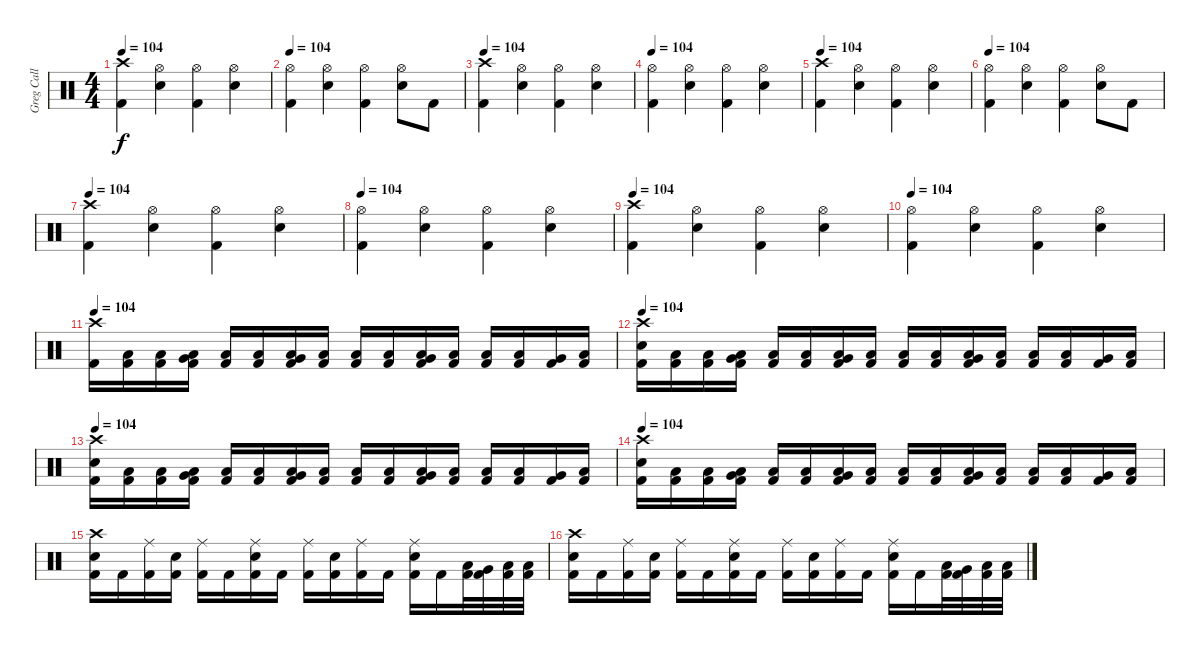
\track ("Greg Call (Drums)" "Greg Call ") {instrument percussion}
\staff {score}
\articulation defaults
\ts (4 4)
\tempo 104
\clef neutral
\ks c
("Crash high (hit)" "Kick (hit) 2").4{dy f} ("Hi-Hat (open)" "Snare (hit) 2").4 ("Hi-Hat (open)" "Kick (hit) 2").4 ("Hi-Hat (open)" "Snare (hit) 2").4 |
\tempo 104
("Hi-Hat (open)" "Kick (hit) 2").4 ("Hi-Hat (open)" "Snare (hit) 2").4 ("Hi-Hat (open)" "Kick (hit) 2").4 ("Hi-Hat (open)" "Snare (hit) 2").8 "Kick (hit) 2".8 |
\tempo 104
("Crash high (hit)" "Kick (hit) 2").4 ("Hi-Hat (open)" "Snare (hit) 2").4 ("Hi-Hat (open)" "Kick (hit) 2").4 ("Hi-Hat (open)" "Snare (hit) 2").4 |
\tempo 104
("Hi-Hat (open)" "Kick (hit) 2").4 ("Hi-Hat (open)" "Snare (hit) 2").4 ("Hi-Hat (open)" "Kick (hit) 2").4 ("Hi-Hat (open)" "Snare (hit) 2").4 |
\tempo 104
("Crash high (hit)" "Kick (hit) 2").4 ("Hi-Hat (open)" "Snare (hit) 2").4 ("Hi-Hat (open)" "Kick (hit) 2").4 ("Hi-Hat (open)" "Snare (hit) 2").4 |
\tempo 104
("Hi-Hat (open)" "Kick (hit) 2").4 ("Hi-Hat (open)" "Snare (hit) 2").4 ("Hi-Hat (open)" "Kick (hit) 2").4 ("Hi-Hat (open)" "Snare (hit) 2").8 "Kick (hit) 2".8 |
\tempo 104
("Crash high (hit)" "Kick (hit) 2").4 ("Hi-Hat (open)" "Snare (hit) 2").4 ("Hi-Hat (open)" "Kick (hit) 2").4 ("Hi-Hat (open)" "Snare (hit) 2").4 |
\tempo 104
("Hi-Hat (open)" "Kick (hit) 2").4 ("Hi-Hat (open)" "Snare (hit) 2").4 ("Hi-Hat (open)" "Kick (hit) 2").4 ("Hi-Hat (open)" "Snare (hit) 2").4 |
\tempo 104
("Crash high (hit)" "Kick (hit) 2").4 ("Hi-Hat (open)" "Snare (hit) 2").4 ("Hi-Hat (open)" "Kick (hit) 2").4 ("Hi-Hat (open)" "Snare (hit) 2").4 |
\tempo 104
("Hi-Hat (open)" "Kick (hit) 2").4 ("Hi-Hat (open)" "Snare (hit) 2").4 ("Hi-Hat (open)" "Kick (hit) 2").4 ("Hi-Hat (open)" "Snare (hit) 2").4 |
\tempo 104
("Crash high (hit)" "Kick (hit) 2").16 ("Low Floor Tom (hit)" "Kick (hit) 2").16 ("Low Floor Tom (hit)" "Kick (hit) 2").16 ("Low Tom (hit)" "Very Low Tom (hit)" "Kick (hit) 2").16 ("Low Floor Tom (hit)" "Kick (hit) 2").16 ("Low Floor Tom (hit)" "Kick (hit) 2").16 ("Low Floor Tom (hit)" "Very Low Tom (hit)" "Kick (hit) 2").16 ("Low Floor Tom (hit)" "Kick (hit) 2").16 ("Low Floor Tom (hit)" "Kick (hit) 2").16 ("Low Floor Tom (hit)" "Kick (hit) 2").16 ("Low Floor Tom (hit)" "Very Low Tom (hit)" "Kick (hit) 2").16 ("Low Floor Tom (hit)" "Kick (hit) 2").16 ("Low Floor Tom (hit)" "Kick (hit) 2").16 ("Low Tom (hit)" "Kick (hit) 2").16 ("Very Low Tom (hit)" "Kick (hit) 2").16 ("Low Floor Tom (hit)" "Kick (hit) 2").16 |
\tempo 104
("Snare (hit) 2" "Crash high (hit)" "Kick (hit) 2").16 ("Low Floor Tom (hit)" "Kick (hit) 2").16 ("Low Floor Tom (hit)" "Kick (hit) 2").16 ("Low Tom (hit)" "Very Low Tom (hit)" "Kick (hit) 2").16 ("Low Floor Tom (hit)" "Kick (hit) 2").16 ("Low Floor Tom (hit)" "Kick (hit) 2").16 ("Low Floor Tom (hit)" "Very Low Tom (hit)" "Kick (hit) 2").16 ("Low Floor Tom (hit)" "Kick (hit) 2").16 ("Low Floor Tom (hit)" "Kick (hit) 2").16 ("Low Floor Tom (hit)" "Kick (hit) 2").16 ("Low Floor Tom (hit)" "Very Low Tom (hit)" "Kick (hit) 2").16 ("Low Floor Tom (hit)" "Kick (hit) 2").16 ("Low Floor Tom (hit)" "Kick (hit) 2").16 ("Low Tom (hit)" "Kick (hit) 2").16 ("Very Low Tom (hit)" "Kick (hit) 2").16 ("Low Floor Tom (hit)" "Kick (hit) 2").16 |
\tempo 104
("Snare (hit) 2" "Crash high (hit)" "Kick (hit) 2").16 ("Low Floor Tom (hit)" "Kick (hit) 2").16 ("Low Floor Tom (hit)" "Kick (hit) 2").16 ("Low Tom (hit)" "Very Low Tom (hit)" "Kick (hit) 2").16 ("Low Floor Tom (hit)" "Kick (hit) 2").16 ("Low Floor Tom (hit)" "Kick (hit) 2").16 ("Low Floor Tom (hit)" "Very Low Tom (hit)" "Kick (hit) 2").16 ("Low Floor Tom (hit)" "Kick (hit) 2").16 ("Low Floor Tom (hit)" "Kick (hit) 2").16 ("Low Floor Tom (hit)" "Kick (hit) 2").16 ("Low Floor Tom (hit)" "Very Low Tom (hit)" "Kick (hit) 2").16 ("Low Floor Tom (hit)" "Kick (hit) 2").16 ("Low Floor Tom (hit)" "Kick (hit) 2").16 ("Low Tom (hit)" "Kick (hit) 2").16 ("Very Low Tom (hit)" "Kick (hit) 2").16 ("Low Floor Tom (hit)" "Kick (hit) 2").16 |
\tempo 104
("Snare (hit) 2" "Crash high (hit)" "Kick (hit) 2").16 ("Low Floor Tom (hit)" "Kick (hit) 2").16 ("Low Floor Tom (hit)" "Kick (hit) 2").16 ("Low Tom (hit)" "Very Low Tom (hit)" "Kick (hit) 2").16 ("Low Floor Tom (hit)" "Kick (hit) 2").16 ("Low Floor Tom (hit)" "Kick (hit) 2").16 ("Low Floor Tom (hit)" "Very Low Tom (hit)" "Kick (hit) 2").16 ("Low Floor Tom (hit)" "Kick (hit) 2").16 ("Low Floor Tom (hit)" "Kick (hit) 2").16 ("Low Floor Tom (hit)" "Kick (hit) 2").16 ("Low Floor Tom (hit)" "Very Low Tom (hit)" "Kick (hit) 2").16 ("Low Floor Tom (hit)" "Kick (hit) 2").16 ("Low Floor Tom (hit)" "Kick (hit) 2").16 ("Low Tom (hit)" "Kick (hit) 2").16 ("Very Low Tom (hit)" "Kick (hit) 2").16 ("Low Floor Tom (hit)" "Kick (hit) 2").16 |
("Snare (hit) 2" "Crash high (hit)" "Kick (hit) 2").16 "Kick (hit) 2".16 ("Ride (middle)" "Kick (hit) 2").16 ("Snare (hit) 2" "Kick (hit) 2").16 ("Ride (middle)" "Kick (hit) 2").16 "Kick (hit) 2".16 ("Ride (middle)" "Snare (hit) 2" "Kick (hit) 2").16 "Kick (hit) 2".16 ("Ride (middle)" "Kick (hit) 2").16 ("Snare (hit) 2" "Kick (hit) 2").16 ("Ride (middle)" "Kick (hit) 2").16 "Kick (hit) 2".16 ("Snare (hit) 2" "Ride (middle)" "Kick (hit) 2").16 "Kick (hit) 2".16 ("Low Tom (hit)" "Kick (hit) 2").32 ("Very Low Tom (hit)" "Kick (hit) 2").32 ("Low Floor Tom (hit)" "Kick (hit) 2").32 ("Low Floor Tom (hit)" "Kick (hit) 2").32 |
("Snare (hit) 2" "Crash high (hit)" "Kick (hit) 2").16 "Kick (hit) 2".16 ("Ride (middle)" "Kick (hit) 2").16 ("Snare (hit) 2" "Kick (hit) 2").16 ("Ride (middle)" "Kick (hit) 2").16 "Kick (hit) 2".16 ("Ride (middle)" "Snare (hit) 2" "Kick (hit) 2").16 "Kick (hit) 2".16 ("Ride (middle)" "Kick (hit) 2").16 ("Snare (hit) 2" "Kick (hit) 2").16 ("Ride (middle)" "Kick (hit) 2").16 "Kick (hit) 2".16 ("Snare (hit) 2" "Ride (middle)" "Kick (hit) 2").16 "Kick (hit) 2".16 ("Low Tom (hit)" "Kick (hit) 2").32 ("Very Low Tom (hit)" "Kick (hit) 2").32 ("Low Floor Tom (hit)" "Kick (hit) 2").32 ("Low Floor Tom (hit)" "Kick (hit) 2").32
